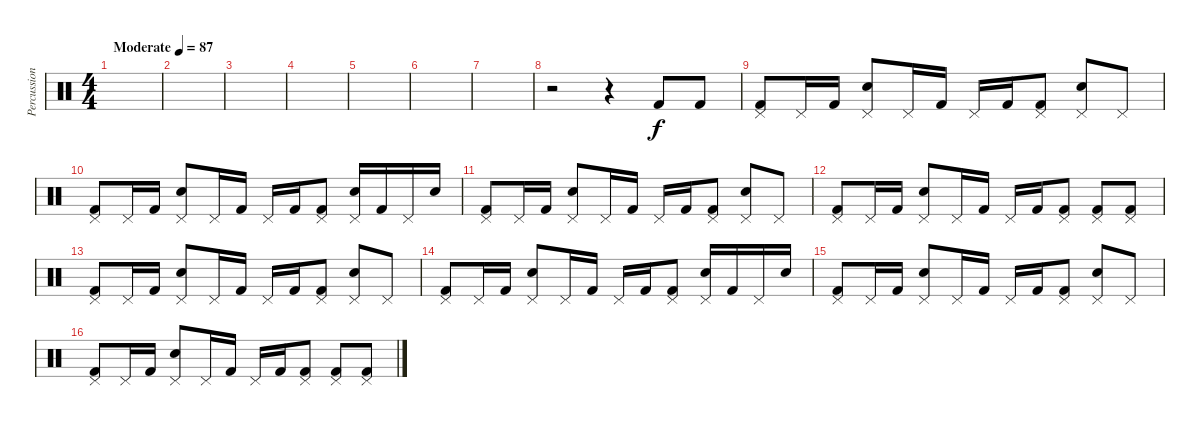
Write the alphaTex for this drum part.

\track ("Percussion" "Percussion") {instrument percussion}
\staff {score}
\articulation defaults
\ts (4 4)
\tempo (87 "Moderate")
\clef neutral
\ks c
|
|
|
|
|
|
|
r.2 r.4 "Kick (hit) 2".8 "Kick (hit) 2".8 |
("Kick (hit) 2" "Pedal Hi-Hat (hit)").8 "Pedal Hi-Hat (hit)".16 "Kick (hit) 2".16 ("Snare (hit) 2" "Pedal Hi-Hat (hit)").8 "Pedal Hi-Hat (hit)".16 "Kick (hit) 2".16 "Pedal Hi-Hat (hit)".16 "Kick (hit) 2".16 ("Kick (hit) 2" "Pedal Hi-Hat (hit)").8 ("Snare (hit) 2" "Pedal Hi-Hat (hit)").8 "Pedal Hi-Hat (hit)".8 |
("Kick (hit) 2" "Pedal Hi-Hat (hit)").8 "Pedal Hi-Hat (hit)".16 "Kick (hit) 2".16 ("Snare (hit) 2" "Pedal Hi-Hat (hit)").8 "Pedal Hi-Hat (hit)".16 "Kick (hit) 2".16 "Pedal Hi-Hat (hit)".16 "Kick (hit) 2".16 ("Kick (hit) 2" "Pedal Hi-Hat (hit)").8 ("Snare (hit) 2" "Pedal Hi-Hat (hit)").16 "Kick (hit) 2".16 "Pedal Hi-Hat (hit)".16 "Snare (hit) 2".16 |
("Kick (hit) 2" "Pedal Hi-Hat (hit)").8 "Pedal Hi-Hat (hit)".16 "Kick (hit) 2".16 ("Snare (hit) 2" "Pedal Hi-Hat (hit)").8 "Pedal Hi-Hat (hit)".16 "Kick (hit) 2".16 "Pedal Hi-Hat (hit)".16 "Kick (hit) 2".16 ("Kick (hit) 2" "Pedal Hi-Hat (hit)").8 ("Snare (hit) 2" "Pedal Hi-Hat (hit)").8 "Pedal Hi-Hat (hit)".8 |
("Kick (hit) 2" "Pedal Hi-Hat (hit)").8 "Pedal Hi-Hat (hit)".16 "Kick (hit) 2".16 ("Snare (hit) 2" "Pedal Hi-Hat (hit)").8 "Pedal Hi-Hat (hit)".16 "Kick (hit) 2".16 "Pedal Hi-Hat (hit)".16 "Kick (hit) 2".16 ("Kick (hit) 2" "Pedal Hi-Hat (hit)").8 ("Kick (hit) 2" "Pedal Hi-Hat (hit)").8 ("Kick (hit) 2" "Pedal Hi-Hat (hit)").8 |
("Kick (hit) 2" "Pedal Hi-Hat (hit)").8 "Pedal Hi-Hat (hit)".16 "Kick (hit) 2".16 ("Snare (hit) 2" "Pedal Hi-Hat (hit)").8 "Pedal Hi-Hat (hit)".16 "Kick (hit) 2".16 "Pedal Hi-Hat (hit)".16 "Kick (hit) 2".16 ("Kick (hit) 2" "Pedal Hi-Hat (hit)").8 ("Snare (hit) 2" "Pedal Hi-Hat (hit)").8 "Pedal Hi-Hat (hit)".8 |
("Kick (hit) 2" "Pedal Hi-Hat (hit)").8 "Pedal Hi-Hat (hit)".16 "Kick (hit) 2".16 ("Snare (hit) 2" "Pedal Hi-Hat (hit)").8 "Pedal Hi-Hat (hit)".16 "Kick (hit) 2".16 "Pedal Hi-Hat (hit)".16 "Kick (hit) 2".16 ("Kick (hit) 2" "Pedal Hi-Hat (hit)").8 ("Snare (hit) 2" "Pedal Hi-Hat (hit)").16 "Kick (hit) 2".16 "Pedal Hi-Hat (hit)".16 "Snare (hit) 2".16 |
("Kick (hit) 2" "Pedal Hi-Hat (hit)").8 "Pedal Hi-Hat (hit)".16 "Kick (hit) 2".16 ("Snare (hit) 2" "Pedal Hi-Hat (hit)").8 "Pedal Hi-Hat (hit)".16 "Kick (hit) 2".16 "Pedal Hi-Hat (hit)".16 "Kick (hit) 2".16 ("Kick (hit) 2" "Pedal Hi-Hat (hit)").8 ("Snare (hit) 2" "Pedal Hi-Hat (hit)").8 "Pedal Hi-Hat (hit)".8 |
("Kick (hit) 2" "Pedal Hi-Hat (hit)").8 "Pedal Hi-Hat (hit)".16 "Kick (hit) 2".16 ("Snare (hit) 2" "Pedal Hi-Hat (hit)").8 "Pedal Hi-Hat (hit)".16 "Kick (hit) 2".16 "Pedal Hi-Hat (hit)".16 "Kick (hit) 2".16 ("Kick (hit) 2" "Pedal Hi-Hat (hit)").8 ("Kick (hit) 2" "Pedal Hi-Hat (hit)").8 ("Kick (hit) 2" "Pedal Hi-Hat (hit)").8
